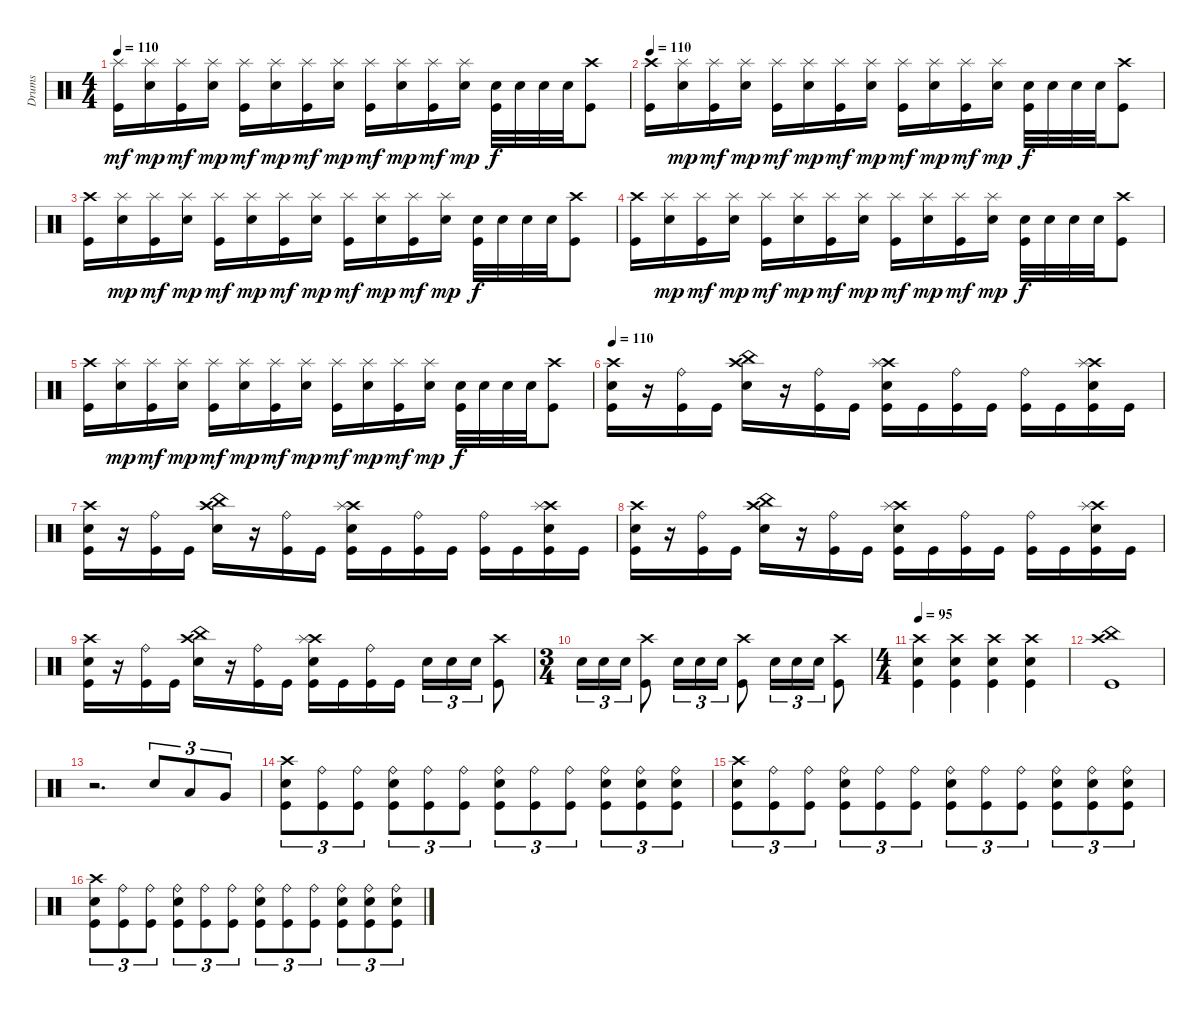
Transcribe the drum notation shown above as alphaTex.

\track ("Drums" "Drums") {instrument percussion}
\staff {score}
\articulation defaults
\ts (4 4)
\tempo 110
\clef neutral
\ks c
("Splash (hit)" "Kick (hit)").16{dy mf} ("Splash (hit)" "Electric Snare (hit)").16{dy mp} ("Splash (hit)" "Kick (hit)").16{dy mf} ("Splash (hit)" "Electric Snare (hit)").16{dy mp} ("Splash (hit)" "Kick (hit)").16{dy mf} ("Splash (hit)" "Electric Snare (hit)").16{dy mp} ("Splash (hit)" "Kick (hit)").16{dy mf} ("Splash (hit)" "Electric Snare (hit)").16{dy mp} ("Splash (hit)" "Kick (hit)").16{dy mf} ("Splash (hit)" "Electric Snare (hit)").16{dy mp} ("Splash (hit)" "Kick (hit)").16{dy mf} ("Splash (hit)" "Electric Snare (hit)").16{dy mp} ("Electric Snare (hit)" "Kick (hit)").32{dy f} "Electric Snare (hit)".32 "Electric Snare (hit)".32 "Electric Snare (hit)".32 ("Crash high (hit)" "Kick (hit)").8 |
\tempo 110
("Crash high (hit)" "Kick (hit)").16 ("Splash (hit)" "Electric Snare (hit)").16{dy mp} ("Splash (hit)" "Kick (hit)").16{dy mf} ("Splash (hit)" "Electric Snare (hit)").16{dy mp} ("Splash (hit)" "Kick (hit)").16{dy mf} ("Splash (hit)" "Electric Snare (hit)").16{dy mp} ("Splash (hit)" "Kick (hit)").16{dy mf} ("Splash (hit)" "Electric Snare (hit)").16{dy mp} ("Splash (hit)" "Kick (hit)").16{dy mf} ("Splash (hit)" "Electric Snare (hit)").16{dy mp} ("Splash (hit)" "Kick (hit)").16{dy mf} ("Splash (hit)" "Electric Snare (hit)").16{dy mp} ("Electric Snare (hit)" "Kick (hit)").32{dy f} "Electric Snare (hit)".32 "Electric Snare (hit)".32 "Electric Snare (hit)".32 ("Crash high (hit)" "Kick (hit)").8 |
("Crash high (hit)" "Kick (hit)").16 ("Splash (hit)" "Electric Snare (hit)").16{dy mp} ("Splash (hit)" "Kick (hit)").16{dy mf} ("Splash (hit)" "Electric Snare (hit)").16{dy mp} ("Splash (hit)" "Kick (hit)").16{dy mf} ("Splash (hit)" "Electric Snare (hit)").16{dy mp} ("Splash (hit)" "Kick (hit)").16{dy mf} ("Splash (hit)" "Electric Snare (hit)").16{dy mp} ("Splash (hit)" "Kick (hit)").16{dy mf} ("Splash (hit)" "Electric Snare (hit)").16{dy mp} ("Splash (hit)" "Kick (hit)").16{dy mf} ("Splash (hit)" "Electric Snare (hit)").16{dy mp} ("Electric Snare (hit)" "Kick (hit)").32{dy f} "Electric Snare (hit)".32 "Electric Snare (hit)".32 "Electric Snare (hit)".32 ("Crash high (hit)" "Kick (hit)").8 |
("Crash high (hit)" "Kick (hit)").16 ("Splash (hit)" "Electric Snare (hit)").16{dy mp} ("Splash (hit)" "Kick (hit)").16{dy mf} ("Splash (hit)" "Electric Snare (hit)").16{dy mp} ("Splash (hit)" "Kick (hit)").16{dy mf} ("Splash (hit)" "Electric Snare (hit)").16{dy mp} ("Splash (hit)" "Kick (hit)").16{dy mf} ("Splash (hit)" "Electric Snare (hit)").16{dy mp} ("Splash (hit)" "Kick (hit)").16{dy mf} ("Splash (hit)" "Electric Snare (hit)").16{dy mp} ("Splash (hit)" "Kick (hit)").16{dy mf} ("Splash (hit)" "Electric Snare (hit)").16{dy mp} ("Electric Snare (hit)" "Kick (hit)").32{dy f} "Electric Snare (hit)".32 "Electric Snare (hit)".32 "Electric Snare (hit)".32 ("Crash high (hit)" "Kick (hit)").8 |
("Crash high (hit)" "Kick (hit)").16 ("Splash (hit)" "Electric Snare (hit)").16{dy mp} ("Splash (hit)" "Kick (hit)").16{dy mf} ("Splash (hit)" "Electric Snare (hit)").16{dy mp} ("Splash (hit)" "Kick (hit)").16{dy mf} ("Splash (hit)" "Electric Snare (hit)").16{dy mp} ("Splash (hit)" "Kick (hit)").16{dy mf} ("Splash (hit)" "Electric Snare (hit)").16{dy mp} ("Splash (hit)" "Kick (hit)").16{dy mf} ("Splash (hit)" "Electric Snare (hit)").16{dy mp} ("Splash (hit)" "Kick (hit)").16{dy mf} ("Splash (hit)" "Electric Snare (hit)").16{dy mp} ("Electric Snare (hit)" "Kick (hit)").32{dy f} "Electric Snare (hit)".32 "Electric Snare (hit)".32 "Electric Snare (hit)".32 ("Crash high (hit)" "Kick (hit)").8 |
\tempo 110
("Crash high (hit)" "Electric Snare (hit)" "Kick (hit)").16 r.16 ("Ride (bell)" "Kick (hit)").16 "Kick (hit)".16 ("Crash high (hit)" "China (hit)" "Electric Snare (hit)").16 r.16 ("Ride (bell)" "Kick (hit)").16 "Kick (hit)".16 ("Crash high (hit)" "Splash (hit)" "Electric Snare (hit)" "Kick (hit)").16 "Kick (hit)".16 ("Ride (bell)" "Kick (hit)").16 "Kick (hit)".16 ("Ride (bell)" "Kick (hit)").16 "Kick (hit)".16 ("Crash high (hit)" "Splash (hit)" "Electric Snare (hit)" "Kick (hit)").16 "Kick (hit)".16 |
("Crash high (hit)" "Electric Snare (hit)" "Kick (hit)").16 r.16 ("Ride (bell)" "Kick (hit)").16 "Kick (hit)".16 ("Crash high (hit)" "China (hit)" "Electric Snare (hit)").16 r.16 ("Ride (bell)" "Kick (hit)").16 "Kick (hit)".16 ("Crash high (hit)" "Splash (hit)" "Electric Snare (hit)" "Kick (hit)").16 "Kick (hit)".16 ("Ride (bell)" "Kick (hit)").16 "Kick (hit)".16 ("Ride (bell)" "Kick (hit)").16 "Kick (hit)".16 ("Crash high (hit)" "Splash (hit)" "Electric Snare (hit)" "Kick (hit)").16 "Kick (hit)".16 |
("Crash high (hit)" "Electric Snare (hit)" "Kick (hit)").16 r.16 ("Ride (bell)" "Kick (hit)").16 "Kick (hit)".16 ("Crash high (hit)" "China (hit)" "Electric Snare (hit)").16 r.16 ("Ride (bell)" "Kick (hit)").16 "Kick (hit)".16 ("Crash high (hit)" "Splash (hit)" "Electric Snare (hit)" "Kick (hit)").16 "Kick (hit)".16 ("Ride (bell)" "Kick (hit)").16 "Kick (hit)".16 ("Ride (bell)" "Kick (hit)").16 "Kick (hit)".16 ("Crash high (hit)" "Splash (hit)" "Electric Snare (hit)" "Kick (hit)").16 "Kick (hit)".16 |
("Crash high (hit)" "Electric Snare (hit)" "Kick (hit)").16 r.16 ("Ride (bell)" "Kick (hit)").16 "Kick (hit)".16 ("Crash high (hit)" "China (hit)" "Electric Snare (hit)").16 r.16 ("Ride (bell)" "Kick (hit)").16 "Kick (hit)".16 ("Crash high (hit)" "Splash (hit)" "Electric Snare (hit)" "Kick (hit)").16 "Kick (hit)".16 ("Ride (bell)" "Kick (hit)").16 "Kick (hit)".16 "Electric Snare (hit)".16{tu (3 2)} "Electric Snare (hit)".16{tu (3 2)} "Electric Snare (hit)".16{tu (3 2)} ("Crash high (hit)" "Kick (hit)").8 |
\ts (3 4)
"Electric Snare (hit)".16{tu (3 2)} "Electric Snare (hit)".16{tu (3 2)} "Electric Snare (hit)".16{tu (3 2)} ("Crash high (hit)" "Kick (hit)").8 "Electric Snare (hit)".16{tu (3 2)} "Electric Snare (hit)".16{tu (3 2)} "Electric Snare (hit)".16{tu (3 2)} ("Crash high (hit)" "Kick (hit)").8 "Electric Snare (hit)".16{tu (3 2)} "Electric Snare (hit)".16{tu (3 2)} "Electric Snare (hit)".16{tu (3 2)} ("Crash high (hit)" "Kick (hit)").8 |
\ts (4 4)
\tempo 95
("Crash high (hit)" "Electric Snare (hit)" "Kick (hit)").4 ("Crash high (hit)" "Electric Snare (hit)" "Kick (hit)").4 ("Crash high (hit)" "Electric Snare (hit)" "Kick (hit)").4 ("Crash high (hit)" "Electric Snare (hit)" "Kick (hit)").4 |
("Crash high (hit)" "China (hit)" "Kick (hit)").1 |
r.2{d} "Electric Snare (hit)".8{tu (3 2)} "Low Tom (hit)".8{tu (3 2)} "Very Low Tom (hit)".8{tu (3 2)} |
("Crash high (hit)" "Electric Snare (hit)" "Kick (hit)").8{tu (3 2)} ("Ride (bell)" "Kick (hit)").8{tu (3 2)} ("Ride (bell)" "Kick (hit)").8{tu (3 2)} ("Ride (bell)" "Electric Snare (hit)" "Kick (hit)").8{tu (3 2)} ("Ride (bell)" "Kick (hit)").8{tu (3 2)} ("Ride (bell)" "Kick (hit)").8{tu (3 2)} ("Ride (bell)" "Electric Snare (hit)" "Kick (hit)").8{tu (3 2)} ("Ride (bell)" "Kick (hit)").8{tu (3 2)} ("Ride (bell)" "Kick (hit)").8{tu (3 2)} ("Ride (bell)" "Electric Snare (hit)" "Kick (hit)").8{tu (3 2)} ("Ride (bell)" "Electric Snare (hit)" "Kick (hit)").8{tu (3 2)} ("Ride (bell)" "Electric Snare (hit)" "Kick (hit)").8{tu (3 2)} |
("Crash high (hit)" "Electric Snare (hit)" "Kick (hit)").8{tu (3 2)} ("Ride (bell)" "Kick (hit)").8{tu (3 2)} ("Ride (bell)" "Kick (hit)").8{tu (3 2)} ("Ride (bell)" "Electric Snare (hit)" "Kick (hit)").8{tu (3 2)} ("Ride (bell)" "Kick (hit)").8{tu (3 2)} ("Ride (bell)" "Kick (hit)").8{tu (3 2)} ("Ride (bell)" "Electric Snare (hit)" "Kick (hit)").8{tu (3 2)} ("Ride (bell)" "Kick (hit)").8{tu (3 2)} ("Ride (bell)" "Kick (hit)").8{tu (3 2)} ("Ride (bell)" "Electric Snare (hit)" "Kick (hit)").8{tu (3 2)} ("Ride (bell)" "Electric Snare (hit)" "Kick (hit)").8{tu (3 2)} ("Ride (bell)" "Electric Snare (hit)" "Kick (hit)").8{tu (3 2)} |
("Crash high (hit)" "Electric Snare (hit)" "Kick (hit)").8{tu (3 2)} ("Ride (bell)" "Kick (hit)").8{tu (3 2)} ("Ride (bell)" "Kick (hit)").8{tu (3 2)} ("Ride (bell)" "Electric Snare (hit)" "Kick (hit)").8{tu (3 2)} ("Ride (bell)" "Kick (hit)").8{tu (3 2)} ("Ride (bell)" "Kick (hit)").8{tu (3 2)} ("Ride (bell)" "Electric Snare (hit)" "Kick (hit)").8{tu (3 2)} ("Ride (bell)" "Kick (hit)").8{tu (3 2)} ("Ride (bell)" "Kick (hit)").8{tu (3 2)} ("Ride (bell)" "Electric Snare (hit)" "Kick (hit)").8{tu (3 2)} ("Ride (bell)" "Electric Snare (hit)" "Kick (hit)").8{tu (3 2)} ("Ride (bell)" "Electric Snare (hit)" "Kick (hit)").8{tu (3 2)}
